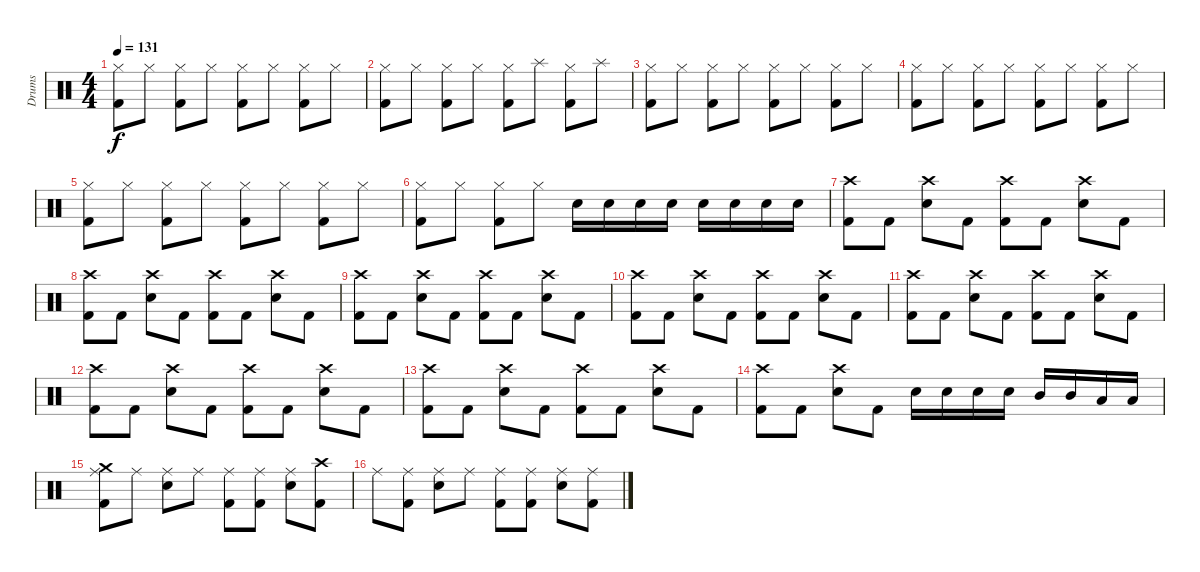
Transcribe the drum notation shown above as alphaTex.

\track ("Drums" "Drums") {instrument percussion}
\staff {score}
\articulation defaults
\ts (4 4)
\tempo 131
\clef neutral
\ks c
("Hi-Hat (closed)" "Kick (hit) 2").8{dy f} "Hi-Hat (closed)".8 ("Hi-Hat (closed)" "Kick (hit) 2").8 "Hi-Hat (closed)".8 ("Hi-Hat (closed)" "Kick (hit) 2").8 "Hi-Hat (closed)".8 ("Hi-Hat (closed)" "Kick (hit) 2").8 "Hi-Hat (closed)".8 |
("Hi-Hat (closed)" "Kick (hit) 2").8 "Hi-Hat (closed)".8 ("Hi-Hat (closed)" "Kick (hit) 2").8 "Hi-Hat (closed)".8 ("Hi-Hat (closed)" "Kick (hit) 2").8 "Splash (hit)".8 ("Hi-Hat (closed)" "Kick (hit) 2").8 "Splash (hit)".8 |
("Hi-Hat (closed)" "Kick (hit) 2").8 "Hi-Hat (closed)".8 ("Hi-Hat (closed)" "Kick (hit) 2").8 "Hi-Hat (closed)".8 ("Hi-Hat (closed)" "Kick (hit) 2").8 "Hi-Hat (closed)".8 ("Hi-Hat (closed)" "Kick (hit) 2").8 "Hi-Hat (closed)".8 |
("Hi-Hat (closed)" "Kick (hit) 2").8 "Hi-Hat (closed)".8 ("Hi-Hat (closed)" "Kick (hit) 2").8 "Hi-Hat (closed)".8 ("Hi-Hat (closed)" "Kick (hit) 2").8 "Hi-Hat (closed)".8 ("Hi-Hat (closed)" "Kick (hit) 2").8 "Hi-Hat (closed)".8 |
("Hi-Hat (closed)" "Kick (hit) 2").8 "Hi-Hat (closed)".8 ("Hi-Hat (closed)" "Kick (hit) 2").8 "Hi-Hat (closed)".8 ("Hi-Hat (closed)" "Kick (hit) 2").8 "Hi-Hat (closed)".8 ("Hi-Hat (closed)" "Kick (hit) 2").8 "Hi-Hat (closed)".8 |
("Hi-Hat (closed)" "Kick (hit) 2").8 "Hi-Hat (closed)".8 ("Hi-Hat (closed)" "Kick (hit) 2").8 "Hi-Hat (closed)".8 "Electric Snare (hit)".16 "Electric Snare (hit)".16 "Electric Snare (hit)".16 "Electric Snare (hit)".16 "Electric Snare (hit)".16 "Electric Snare (hit)".16 "Electric Snare (hit)".16 "Electric Snare (hit)".16 |
("Crash high (hit)" "Kick (hit) 2").8 "Kick (hit) 2".8 ("Crash high (hit)" "Electric Snare (hit)").8 "Kick (hit) 2".8 ("Crash high (hit)" "Kick (hit) 2").8 "Kick (hit) 2".8 ("Crash high (hit)" "Electric Snare (hit)").8 "Kick (hit) 2".8 |
("Crash high (hit)" "Kick (hit) 2").8 "Kick (hit) 2".8 ("Crash high (hit)" "Electric Snare (hit)").8 "Kick (hit) 2".8 ("Crash high (hit)" "Kick (hit) 2").8 "Kick (hit) 2".8 ("Crash high (hit)" "Electric Snare (hit)").8 "Kick (hit) 2".8 |
("Crash high (hit)" "Kick (hit) 2").8 "Kick (hit) 2".8 ("Crash high (hit)" "Electric Snare (hit)").8 "Kick (hit) 2".8 ("Crash high (hit)" "Kick (hit) 2").8 "Kick (hit) 2".8 ("Crash high (hit)" "Electric Snare (hit)").8 "Kick (hit) 2".8 |
("Crash high (hit)" "Kick (hit) 2").8 "Kick (hit) 2".8 ("Crash high (hit)" "Electric Snare (hit)").8 "Kick (hit) 2".8 ("Crash high (hit)" "Kick (hit) 2").8 "Kick (hit) 2".8 ("Crash high (hit)" "Electric Snare (hit)").8 "Kick (hit) 2".8 |
("Crash high (hit)" "Kick (hit) 2").8 "Kick (hit) 2".8 ("Crash high (hit)" "Electric Snare (hit)").8 "Kick (hit) 2".8 ("Crash high (hit)" "Kick (hit) 2").8 "Kick (hit) 2".8 ("Crash high (hit)" "Electric Snare (hit)").8 "Kick (hit) 2".8 |
("Crash high (hit)" "Kick (hit) 2").8 "Kick (hit) 2".8 ("Crash high (hit)" "Electric Snare (hit)").8 "Kick (hit) 2".8 ("Crash high (hit)" "Kick (hit) 2").8 "Kick (hit) 2".8 ("Crash high (hit)" "Electric Snare (hit)").8 "Kick (hit) 2".8 |
("Crash high (hit)" "Kick (hit) 2").8 "Kick (hit) 2".8 ("Crash high (hit)" "Electric Snare (hit)").8 "Kick (hit) 2".8 ("Crash high (hit)" "Kick (hit) 2").8 "Kick (hit) 2".8 ("Crash high (hit)" "Electric Snare (hit)").8 "Kick (hit) 2".8 |
("Crash high (hit)" "Kick (hit) 2").8 "Kick (hit) 2".8 ("Crash high (hit)" "Electric Snare (hit)").8 "Kick (hit) 2".8 "Electric Snare (hit)".16 "Electric Snare (hit)".16 "Electric Snare (hit)".16 "Electric Snare (hit)".16 "Mid Tom (hit)".16 "Mid Tom (hit)".16 "Low Tom (hit)".16 "Low Tom (hit)".16 |
("Crash medium (hit)" "Ride (middle)" "Kick (hit) 2").8 "Ride (middle)".8 ("Ride (middle)" "Electric Snare (hit)").8 "Ride (middle)".8 ("Ride (middle)" "Kick (hit) 2").8 ("Ride (middle)" "Kick (hit) 2").8 ("Ride (middle)" "Electric Snare (hit)").8 ("Crash high (hit)" "Kick (hit) 2").8 |
"Ride (middle)".8 ("Ride (middle)" "Kick (hit) 2").8 ("Ride (middle)" "Electric Snare (hit)").8 "Ride (middle)".8 ("Ride (middle)" "Kick (hit) 2").8 ("Ride (middle)" "Kick (hit) 2").8 ("Ride (middle)" "Electric Snare (hit)").8 ("Ride (middle)" "Kick (hit) 2").8
